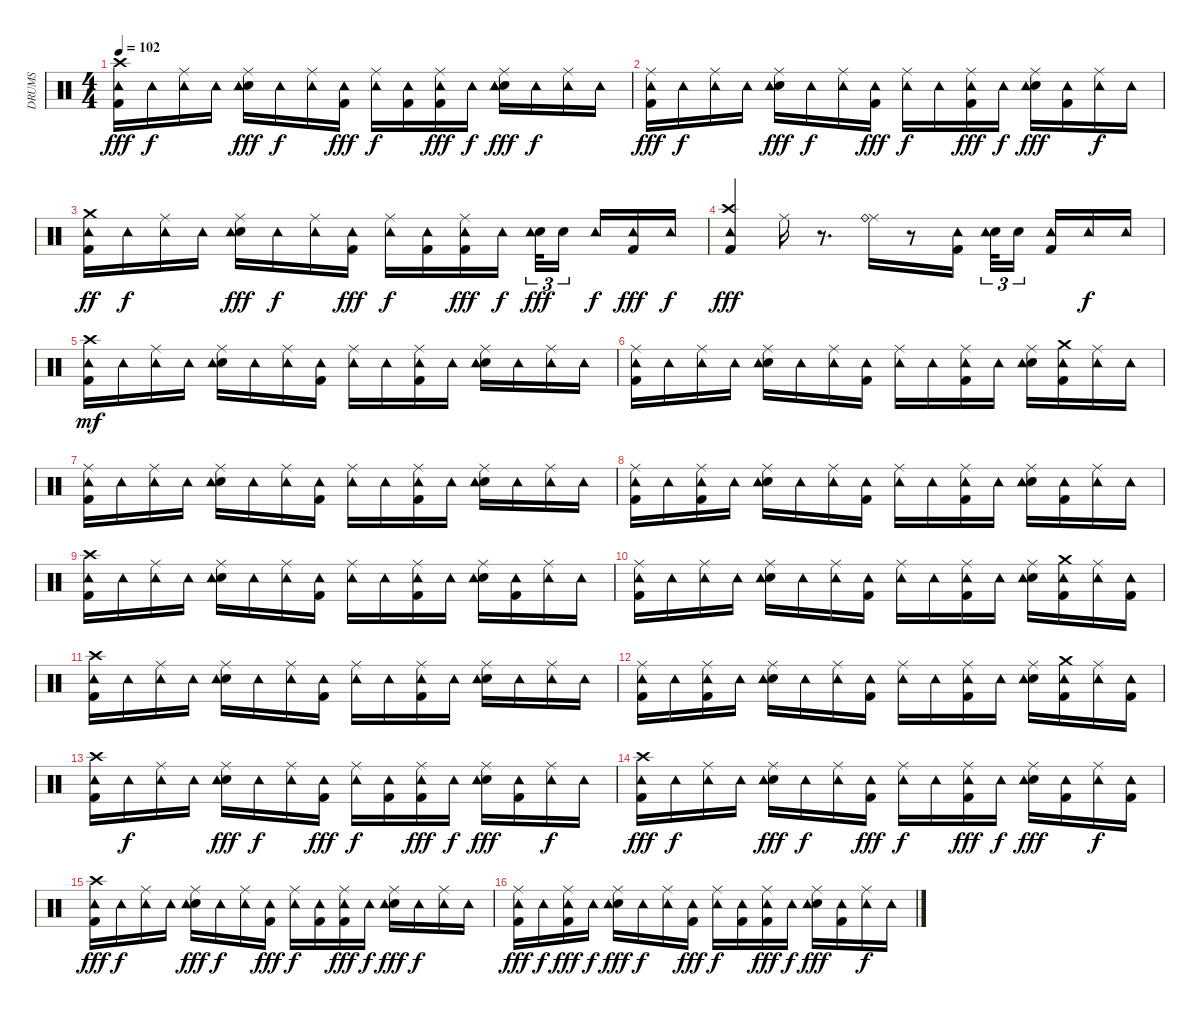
\track ("DRUMS" "DRUMS") {instrument percussion}
\staff {score}
\articulation defaults
\ts (4 4)
\tempo 102
\clef neutral
\ks c
("Kick (hit) 2" "Crash high (hit)" "Tambourine (hit)").16{dy fff} "Tambourine (hit)".16{dy f} ("Ride (middle)" "Tambourine (hit)").16 "Tambourine (hit)".16 ("Snare (hit) 2" "Ride (middle)" "Tambourine (hit)").16{dy fff} "Tambourine (hit)".16{dy f} ("Ride (middle)" "Tambourine (hit)").16 ("Kick (hit) 2" "Tambourine (hit)").16{dy fff} ("Ride (middle)" "Tambourine (hit)").16{dy f} ("Kick (hit) 2" "Tambourine (hit)").16 ("Ride (middle)" "Kick (hit) 2" "Tambourine (hit)").16{dy fff} "Tambourine (hit)".16{dy f} ("Snare (hit) 2" "Ride (middle)" "Tambourine (hit)").16{dy fff} "Tambourine (hit)".16{dy f} ("Ride (middle)" "Tambourine (hit)").16 "Tambourine (hit)".16 |
("Kick (hit) 2" "Ride (middle)" "Tambourine (hit)").16{dy fff} "Tambourine (hit)".16{dy f} ("Ride (middle)" "Tambourine (hit)").16 "Tambourine (hit)".16 ("Snare (hit) 2" "Ride (middle)" "Tambourine (hit)").16{dy fff} "Tambourine (hit)".16{dy f} ("Ride (middle)" "Tambourine (hit)").16 ("Kick (hit) 2" "Tambourine (hit)").16{dy fff} ("Ride (middle)" "Tambourine (hit)").16{dy f} "Tambourine (hit)".16 ("Ride (middle)" "Kick (hit) 2" "Tambourine (hit)").16{dy fff} "Tambourine (hit)".16{dy f} ("Snare (hit) 2" "Ride (middle)" "Tambourine (hit)").16{dy fff} ("Kick (hit) 2" "Tambourine (hit)").16 ("Ride (middle)" "Tambourine (hit)").16{dy f} "Tambourine (hit)".16 |
("Kick (hit) 2" "Crash medium (hit)" "Tambourine (hit)").16{dy ff} "Tambourine (hit)".16{dy f} ("Ride (middle)" "Tambourine (hit)").16 "Tambourine (hit)".16 ("Snare (hit) 2" "Ride (middle)" "Tambourine (hit)").16{dy fff} "Tambourine (hit)".16{dy f} ("Ride (middle)" "Tambourine (hit)").16 ("Kick (hit) 2" "Tambourine (hit)").16{dy fff} ("Ride (middle)" "Tambourine (hit)").16{dy f} ("Kick (hit) 2" "Tambourine (hit)").16 ("Ride (middle)" "Kick (hit) 2" "Tambourine (hit)").16{dy fff} "Tambourine (hit)".16{dy f} ("Snare (hit) 2" "Tambourine (hit)").32{tu (3 2) dy fff} "Snare (hit) 2".16{tu (3 2)} "Tambourine (hit)".16{dy f} ("Kick (hit) 2" "Tambourine (hit)").16{dy fff} "Tambourine (hit)".16{dy f} |
("Crash high (hit)" "Kick (hit) 2" "Tambourine (hit)").4{dy fff} "Ride (middle)".16 r.8{d} ("Ride (middle)" "Ride (bell)").16 r.8 ("Kick (hit) 2" "Tambourine (hit)").16 ("Snare (hit) 2" "Tambourine (hit)").32{tu (3 2)} "Snare (hit) 2".16{tu (3 2)} ("Kick (hit) 2" "Tambourine (hit)").16 "Tambourine (hit)".16{dy f} "Tambourine (hit)".16 |
("Kick (hit) 2" "Crash high (hit)" "Tambourine (hit)").16{dy mf} "Tambourine (hit)".16 ("Ride (middle)" "Tambourine (hit)").16 "Tambourine (hit)".16 ("Snare (hit) 2" "Ride (middle)" "Tambourine (hit)").16 "Tambourine (hit)".16 ("Ride (middle)" "Tambourine (hit)").16 ("Kick (hit) 2" "Tambourine (hit)").16 ("Ride (middle)" "Tambourine (hit)").16 "Tambourine (hit)".16 ("Ride (middle)" "Kick (hit) 2" "Tambourine (hit)").16 "Tambourine (hit)".16 ("Snare (hit) 2" "Ride (middle)" "Tambourine (hit)").16 "Tambourine (hit)".16 ("Ride (middle)" "Tambourine (hit)").16 "Tambourine (hit)".16 |
("Kick (hit) 2" "Ride (middle)" "Tambourine (hit)").16 "Tambourine (hit)".16 ("Ride (middle)" "Tambourine (hit)").16 "Tambourine (hit)".16 ("Snare (hit) 2" "Ride (middle)" "Tambourine (hit)").16 "Tambourine (hit)".16 ("Ride (middle)" "Tambourine (hit)").16 ("Kick (hit) 2" "Tambourine (hit)").16 ("Ride (middle)" "Tambourine (hit)").16 "Tambourine (hit)".16 ("Kick (hit) 2" "Ride (middle)" "Tambourine (hit)").16 "Tambourine (hit)".16 ("Snare (hit) 2" "Ride (middle)" "Tambourine (hit)").16 ("Crash medium (hit)" "Kick (hit) 2" "Tambourine (hit)").16 ("Ride (middle)" "Tambourine (hit)").16 "Tambourine (hit)".16 |
("Kick (hit) 2" "Ride (middle)" "Tambourine (hit)").16 "Tambourine (hit)".16 ("Ride (middle)" "Tambourine (hit)").16 "Tambourine (hit)".16 ("Snare (hit) 2" "Ride (middle)" "Tambourine (hit)").16 "Tambourine (hit)".16 ("Ride (middle)" "Tambourine (hit)").16 ("Kick (hit) 2" "Tambourine (hit)").16 ("Ride (middle)" "Tambourine (hit)").16 "Tambourine (hit)".16 ("Ride (middle)" "Kick (hit) 2" "Tambourine (hit)").16 "Tambourine (hit)".16 ("Snare (hit) 2" "Ride (middle)" "Tambourine (hit)").16 "Tambourine (hit)".16 ("Ride (middle)" "Tambourine (hit)").16 "Tambourine (hit)".16 |
("Kick (hit) 2" "Ride (middle)" "Tambourine (hit)").16 "Tambourine (hit)".16 ("Kick (hit) 2" "Ride (middle)" "Tambourine (hit)").16 "Tambourine (hit)".16 ("Snare (hit) 2" "Ride (middle)" "Tambourine (hit)").16 "Tambourine (hit)".16 ("Ride (middle)" "Tambourine (hit)").16 ("Kick (hit) 2" "Tambourine (hit)").16 ("Ride (middle)" "Tambourine (hit)").16 "Tambourine (hit)".16 ("Kick (hit) 2" "Ride (middle)" "Tambourine (hit)").16 "Tambourine (hit)".16 ("Snare (hit) 2" "Ride (middle)" "Tambourine (hit)").16 ("Kick (hit) 2" "Tambourine (hit)").16 ("Ride (middle)" "Tambourine (hit)").16 "Tambourine (hit)".16 |
("Kick (hit) 2" "Crash high (hit)" "Tambourine (hit)").16 "Tambourine (hit)".16 ("Ride (middle)" "Tambourine (hit)").16 "Tambourine (hit)".16 ("Snare (hit) 2" "Ride (middle)" "Tambourine (hit)").16 "Tambourine (hit)".16 ("Ride (middle)" "Tambourine (hit)").16 ("Kick (hit) 2" "Tambourine (hit)").16 ("Ride (middle)" "Tambourine (hit)").16 "Tambourine (hit)".16 ("Ride (middle)" "Kick (hit) 2" "Tambourine (hit)").16 "Tambourine (hit)".16 ("Snare (hit) 2" "Ride (middle)" "Tambourine (hit)").16 ("Kick (hit) 2" "Tambourine (hit)").16 ("Ride (middle)" "Tambourine (hit)").16 "Tambourine (hit)".16 |
("Kick (hit) 2" "Ride (middle)" "Tambourine (hit)").16 "Tambourine (hit)".16 ("Ride (middle)" "Tambourine (hit)").16 "Tambourine (hit)".16 ("Snare (hit) 2" "Ride (middle)" "Tambourine (hit)").16 "Tambourine (hit)".16 ("Ride (middle)" "Tambourine (hit)").16 ("Kick (hit) 2" "Tambourine (hit)").16 ("Ride (middle)" "Tambourine (hit)").16 "Tambourine (hit)".16 ("Kick (hit) 2" "Ride (middle)" "Tambourine (hit)").16 "Tambourine (hit)".16 ("Snare (hit) 2" "Ride (middle)" "Tambourine (hit)").16 ("Crash medium (hit)" "Kick (hit) 2" "Tambourine (hit)").16 ("Ride (middle)" "Tambourine (hit)").16 ("Kick (hit) 2" "Tambourine (hit)").16 |
("Kick (hit) 2" "Crash high (hit)" "Tambourine (hit)").16 "Tambourine (hit)".16 ("Ride (middle)" "Tambourine (hit)").16 "Tambourine (hit)".16 ("Snare (hit) 2" "Ride (middle)" "Tambourine (hit)").16 "Tambourine (hit)".16 ("Ride (middle)" "Tambourine (hit)").16 ("Kick (hit) 2" "Tambourine (hit)").16 ("Ride (middle)" "Tambourine (hit)").16 "Tambourine (hit)".16 ("Ride (middle)" "Kick (hit) 2" "Tambourine (hit)").16 "Tambourine (hit)".16 ("Snare (hit) 2" "Ride (middle)" "Tambourine (hit)").16 "Tambourine (hit)".16 ("Ride (middle)" "Tambourine (hit)").16 "Tambourine (hit)".16 |
("Kick (hit) 2" "Ride (middle)" "Tambourine (hit)").16 "Tambourine (hit)".16 ("Kick (hit) 2" "Ride (middle)" "Tambourine (hit)").16 "Tambourine (hit)".16 ("Snare (hit) 2" "Ride (middle)" "Tambourine (hit)").16 "Tambourine (hit)".16 ("Ride (middle)" "Tambourine (hit)").16 ("Kick (hit) 2" "Tambourine (hit)").16 ("Ride (middle)" "Tambourine (hit)").16 "Tambourine (hit)".16 ("Kick (hit) 2" "Ride (middle)" "Tambourine (hit)").16 "Tambourine (hit)".16 ("Snare (hit) 2" "Ride (middle)" "Tambourine (hit)").16 ("Crash medium (hit)" "Kick (hit) 2" "Tambourine (hit)").16 ("Ride (middle)" "Tambourine (hit)").16 ("Kick (hit) 2" "Tambourine (hit)").16 |
("Kick (hit) 2" "Crash high (hit)" "Tambourine (hit)").16 "Tambourine (hit)".16{dy f} ("Ride (middle)" "Tambourine (hit)").16 "Tambourine (hit)".16 ("Snare (hit) 2" "Ride (middle)" "Tambourine (hit)").16{dy fff} "Tambourine (hit)".16{dy f} ("Ride (middle)" "Tambourine (hit)").16 ("Kick (hit) 2" "Tambourine (hit)").16{dy fff} ("Ride (middle)" "Tambourine (hit)").16{dy f} ("Kick (hit) 2" "Tambourine (hit)").16 ("Ride (middle)" "Kick (hit) 2" "Tambourine (hit)").16{dy fff} "Tambourine (hit)".16{dy f} ("Snare (hit) 2" "Ride (middle)" "Tambourine (hit)").16{dy fff} ("Kick (hit) 2" "Tambourine (hit)").16 ("Ride (middle)" "Tambourine (hit)").16{dy f} "Tambourine (hit)".16 |
("Kick (hit) 2" "Crash high (hit)" "Tambourine (hit)").16{dy fff} "Tambourine (hit)".16{dy f} ("Ride (middle)" "Tambourine (hit)").16 "Tambourine (hit)".16 ("Snare (hit) 2" "Ride (middle)" "Tambourine (hit)").16{dy fff} "Tambourine (hit)".16{dy f} ("Ride (middle)" "Tambourine (hit)").16 ("Kick (hit) 2" "Tambourine (hit)").16{dy fff} ("Ride (middle)" "Tambourine (hit)").16{dy f} "Tambourine (hit)".16 ("Kick (hit) 2" "Ride (middle)" "Tambourine (hit)").16{dy fff} "Tambourine (hit)".16{dy f} ("Snare (hit) 2" "Ride (middle)" "Tambourine (hit)").16{dy fff} ("Kick (hit) 2" "Tambourine (hit)").16 ("Ride (middle)" "Tambourine (hit)").16{dy f} ("Kick (hit) 2" "Tambourine (hit)").16 |
("Kick (hit) 2" "Crash high (hit)" "Tambourine (hit)").16{dy fff} "Tambourine (hit)".16{dy f} ("Ride (middle)" "Tambourine (hit)").16 "Tambourine (hit)".16 ("Snare (hit) 2" "Ride (middle)" "Tambourine (hit)").16{dy fff} "Tambourine (hit)".16{dy f} ("Ride (middle)" "Tambourine (hit)").16 ("Kick (hit) 2" "Tambourine (hit)").16{dy fff} ("Ride (middle)" "Tambourine (hit)").16{dy f} ("Kick (hit) 2" "Tambourine (hit)").16 ("Ride (middle)" "Kick (hit) 2" "Tambourine (hit)").16{dy fff} "Tambourine (hit)".16{dy f} ("Snare (hit) 2" "Ride (middle)" "Tambourine (hit)").16{dy fff} "Tambourine (hit)".16{dy f} ("Ride (middle)" "Tambourine (hit)").16 "Tambourine (hit)".16 |
("Kick (hit) 2" "Ride (middle)" "Tambourine (hit)").16{dy fff} "Tambourine (hit)".16{dy f} ("Kick (hit) 2" "Ride (middle)" "Tambourine (hit)").16{dy fff} "Tambourine (hit)".16{dy f} ("Snare (hit) 2" "Ride (middle)" "Tambourine (hit)").16{dy fff} "Tambourine (hit)".16{dy f} ("Ride (middle)" "Tambourine (hit)").16 ("Kick (hit) 2" "Tambourine (hit)").16{dy fff} ("Ride (middle)" "Tambourine (hit)").16{dy f} ("Kick (hit) 2" "Tambourine (hit)").16 ("Ride (middle)" "Kick (hit) 2" "Tambourine (hit)").16{dy fff} "Tambourine (hit)".16{dy f} ("Snare (hit) 2" "Ride (middle)" "Tambourine (hit)").16{dy fff} ("Kick (hit) 2" "Tambourine (hit)").16 ("Ride (middle)" "Tambourine (hit)").16{dy f} "Tambourine (hit)".16
